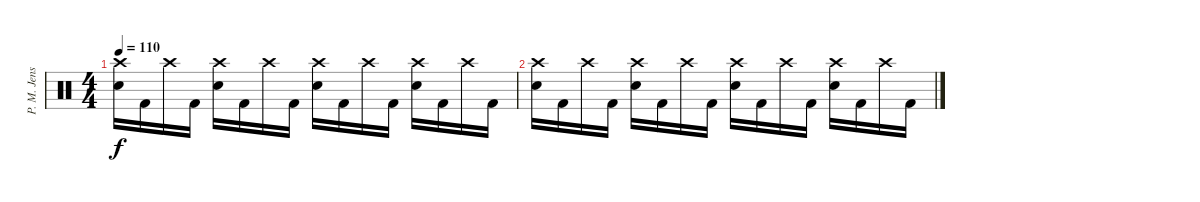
\track ("P. M. Jensen" "P. M. Jens") {instrument percussion}
\staff {score}
\articulation defaults
\ts (4 4)
\tempo 110
\clef neutral
\ks c
("Crash high (hit)" "Electric Snare (hit)").16{dy f} "Kick (hit) 2".16 "Crash high (hit)".16 "Kick (hit) 2".16 ("Crash high (hit)" "Electric Snare (hit)").16 "Kick (hit) 2".16 "Crash high (hit)".16 "Kick (hit) 2".16 ("Crash high (hit)" "Electric Snare (hit)").16 "Kick (hit) 2".16 "Crash high (hit)".16 "Kick (hit) 2".16 ("Crash high (hit)" "Electric Snare (hit)").16 "Kick (hit) 2".16 "Crash high (hit)".16 "Kick (hit) 2".16 |
("Crash high (hit)" "Electric Snare (hit)").16 "Kick (hit) 2".16 "Crash high (hit)".16 "Kick (hit) 2".16 ("Crash high (hit)" "Electric Snare (hit)").16 "Kick (hit) 2".16 "Crash high (hit)".16 "Kick (hit) 2".16 ("Crash high (hit)" "Electric Snare (hit)").16 "Kick (hit) 2".16 "Crash high (hit)".16 "Kick (hit) 2".16 ("Crash high (hit)" "Electric Snare (hit)").16 "Kick (hit) 2".16 "Crash high (hit)".16 "Kick (hit) 2".16
